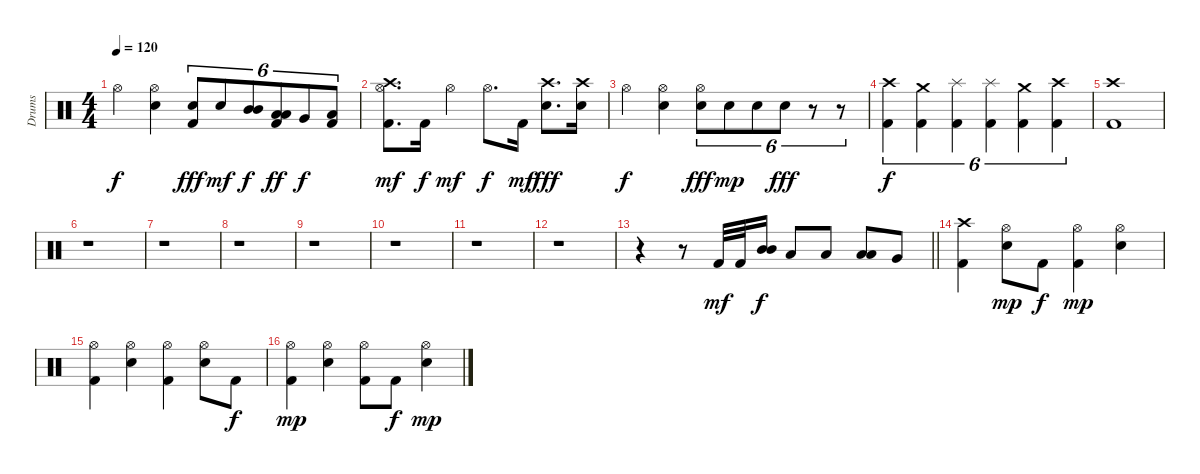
\track ("Drums" "Drums") {instrument percussion}
\staff {score}
\articulation defaults
\ts (4 4)
\tempo 120
\clef neutral
\ks c "Hi-Hat (open)".4{dy f}
("Hi-Hat (open)" "Snare (hit) 2").4 ("Snare (hit) 2" "Kick (hit) 2").8{tu (6 4) bd 60 dy fff} "Snare (hit) 2".8{tu (6 4) dy mf} ("Mid Tom (hit)" "Mid Tom (hit)").8{tu (6 4) bd 120 dy f} ("Low Tom (hit)" "Low Tom (hit)" "Kick (hit) 2").8{tu (6 4) bd 120 dy ff} "Very Low Tom (hit)".8{tu (6 4) dy f} ("Low Floor Tom (hit)" "Kick (hit) 2").8{tu (6 4)} |
("Hi-Hat (open)" "Crash high (hit)" "Kick (hit) 2").8{d dy mf} "Kick (hit) 2".16{dy f} "Hi-Hat (open)".4{dy mf} "Hi-Hat (open)".8{d dy f} "Kick (hit) 2".16{dy mf} ("Crash high (hit)" "Snare (hit) 2").8{d dy fff} ("Crash high (hit)" "Snare (hit) 2").16 |
"Hi-Hat (open)".4{dy f} ("Hi-Hat (open)" "Snare (hit) 2").4 ("Hi-Hat (open)" "Snare (hit) 2").8{tu (6 4) dy fff} "Snare (hit) 2".8{tu (6 4) dy mp} "Snare (hit) 2".8{tu (6 4)} "Snare (hit) 2".8{tu (6 4) dy fff} r.8{tu (6 4)} r.8{tu (6 4)} |
("Crash high (hit)" "Kick (hit) 2").4{tu (6 4) dy f} ("Crash medium (hit)" "Kick (hit) 2").4{tu (6 4)} ("Splash (hit)" "Kick (hit) 2").4{tu (6 4)} ("Splash (hit)" "Kick (hit) 2").4{tu (6 4)} ("Crash medium (hit)" "Kick (hit) 2").4{tu (6 4)} ("Crash high (hit)" "Kick (hit) 2").4{tu (6 4)} |
("Crash high (hit)" "Kick (hit) 2").1 |
r.1 |
r.1 |
r.1 |
r.1 |
r.1 |
r.1 |
r.1 |
\barLineRight lightlight
r.4{volume 9} r.8 "Kick (hit) 2".32{dy mf} "Kick (hit) 2".32 ("Mid Tom (hit)" "Mid Tom (hit)").16{dy f} "Low Tom (hit)".8 "Low Tom (hit)".8 ("Low Tom (hit)" "Low Tom (hit)").8 "Very Low Tom (hit)".8 |
("Crash high (hit)" "Kick (hit) 2").4 ("Hi-Hat (open)" "Snare (hit) 2").8{dy mp} "Kick (hit) 2".8{dy f} ("Hi-Hat (open)" "Kick (hit) 2").4{dy mp} ("Hi-Hat (open)" "Snare (hit) 2").4 |
("Hi-Hat (open)" "Kick (hit) 2").4 ("Hi-Hat (open)" "Snare (hit) 2").4 ("Hi-Hat (open)" "Kick (hit) 2").4 ("Hi-Hat (open)" "Snare (hit) 2").8 "Kick (hit) 2".8{dy f} |
("Hi-Hat (open)" "Kick (hit) 2").4{dy mp} ("Hi-Hat (open)" "Snare (hit) 2").4 ("Hi-Hat (open)" "Kick (hit) 2").8 "Kick (hit) 2".8{dy f} ("Hi-Hat (open)" "Snare (hit) 2").4{dy mp}
